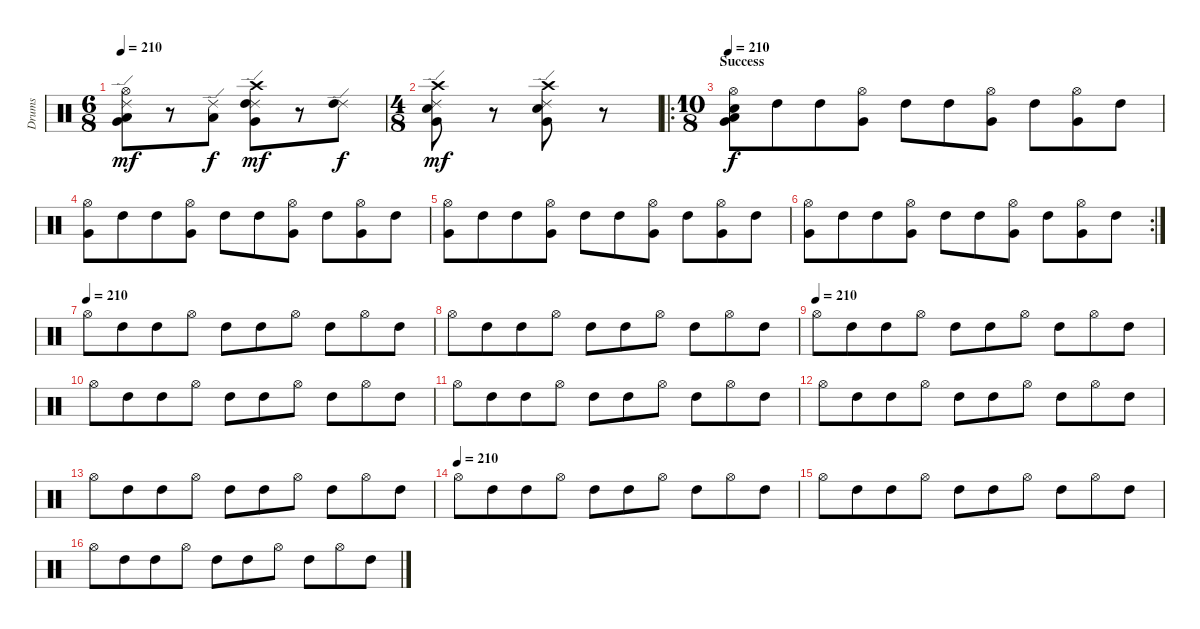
\track ("Drums" "Drums") {instrument percussion}
\staff {score}
\articulation defaults
\ts (6 8)
\tempo 210
\clef neutral
\ks c
("Ride (edge) 2" "Hi-Hat (open)" "Low Tom (hit)" "Very Low Tom (hit)").8{dy mf} r.8 ("Ride (edge) 2" "Low Tom (hit)").8{dy f} ("Ride (edge) 2" "Crash high (hit)" "High Tom (hit)" "Very Low Tom (hit)").8{dy mf} r.8 ("Ride (edge) 2" "High Tom (hit)").8{dy f} |
\ts (4 8)
("Ride (edge) 2" "Crash high (hit)" "Electric Snare (hit)" "Very Low Tom (hit)").8{dy mf} r.8 ("Ride (edge) 2" "Crash high (hit)" "Electric Snare (hit)" "Very Low Tom (hit)").8 r.8 |
\ro
\ts (10 8)
\section ("" "Success")
\tempo 210
("Hi-Hat (open)" "Electric Snare (hit)" "Low Floor Tom (hit)" "Very Low Tom (hit)").8{dy f} "High Tom (hit)".8 "High Tom (hit)".8 ("Hi-Hat (open)" "Very Low Tom (hit)").8 "High Tom (hit)".8 "High Tom (hit)".8 ("Hi-Hat (open)" "Very Low Tom (hit)").8 "High Tom (hit)".8 ("Hi-Hat (open)" "Very Low Tom (hit)").8 "High Tom (hit)".8 |
("Hi-Hat (open)" "Very Low Tom (hit)").8 "High Tom (hit)".8 "High Tom (hit)".8 ("Hi-Hat (open)" "Very Low Tom (hit)").8 "High Tom (hit)".8 "High Tom (hit)".8 ("Hi-Hat (open)" "Very Low Tom (hit)").8 "High Tom (hit)".8 ("Hi-Hat (open)" "Very Low Tom (hit)").8 "High Tom (hit)".8 |
("Hi-Hat (open)" "Very Low Tom (hit)").8 "High Tom (hit)".8 "High Tom (hit)".8 ("Hi-Hat (open)" "Very Low Tom (hit)").8 "High Tom (hit)".8 "High Tom (hit)".8 ("Hi-Hat (open)" "Very Low Tom (hit)").8 "High Tom (hit)".8 ("Hi-Hat (open)" "Very Low Tom (hit)").8 "High Tom (hit)".8 |
\rc 2
("Hi-Hat (open)" "Very Low Tom (hit)").8 "High Tom (hit)".8 "High Tom (hit)".8 ("Hi-Hat (open)" "Very Low Tom (hit)").8 "High Tom (hit)".8 "High Tom (hit)".8 ("Hi-Hat (open)" "Very Low Tom (hit)").8 "High Tom (hit)".8 ("Hi-Hat (open)" "Very Low Tom (hit)").8 "High Tom (hit)".8 |
\tempo (210)
"Hi-Hat (open)".8 "High Tom (hit)".8 "High Tom (hit)".8 "Hi-Hat (open)".8 "High Tom (hit)".8 "High Tom (hit)".8 "Hi-Hat (open)".8 "High Tom (hit)".8 "Hi-Hat (open)".8 "High Tom (hit)".8 |
"Hi-Hat (open)".8 "High Tom (hit)".8 "High Tom (hit)".8 "Hi-Hat (open)".8 "High Tom (hit)".8 "High Tom (hit)".8 "Hi-Hat (open)".8 "High Tom (hit)".8 "Hi-Hat (open)".8 "High Tom (hit)".8 |
\tempo (210)
"Hi-Hat (open)".8 "High Tom (hit)".8 "High Tom (hit)".8 "Hi-Hat (open)".8 "High Tom (hit)".8 "High Tom (hit)".8 "Hi-Hat (open)".8 "High Tom (hit)".8 "Hi-Hat (open)".8 "High Tom (hit)".8 |
"Hi-Hat (open)".8 "High Tom (hit)".8 "High Tom (hit)".8 "Hi-Hat (open)".8 "High Tom (hit)".8 "High Tom (hit)".8 "Hi-Hat (open)".8 "High Tom (hit)".8 "Hi-Hat (open)".8 "High Tom (hit)".8 |
"Hi-Hat (open)".8 "High Tom (hit)".8 "High Tom (hit)".8 "Hi-Hat (open)".8 "High Tom (hit)".8 "High Tom (hit)".8 "Hi-Hat (open)".8 "High Tom (hit)".8 "Hi-Hat (open)".8 "High Tom (hit)".8 |
"Hi-Hat (open)".8 "High Tom (hit)".8 "High Tom (hit)".8 "Hi-Hat (open)".8 "High Tom (hit)".8 "High Tom (hit)".8 "Hi-Hat (open)".8 "High Tom (hit)".8 "Hi-Hat (open)".8 "High Tom (hit)".8 |
"Hi-Hat (open)".8 "High Tom (hit)".8 "High Tom (hit)".8 "Hi-Hat (open)".8 "High Tom (hit)".8 "High Tom (hit)".8 "Hi-Hat (open)".8 "High Tom (hit)".8 "Hi-Hat (open)".8 "High Tom (hit)".8 |
\tempo (210)
"Hi-Hat (open)".8 "High Tom (hit)".8 "High Tom (hit)".8 "Hi-Hat (open)".8 "High Tom (hit)".8 "High Tom (hit)".8 "Hi-Hat (open)".8 "High Tom (hit)".8 "Hi-Hat (open)".8 "High Tom (hit)".8 |
"Hi-Hat (open)".8 "High Tom (hit)".8 "High Tom (hit)".8 "Hi-Hat (open)".8 "High Tom (hit)".8 "High Tom (hit)".8 "Hi-Hat (open)".8 "High Tom (hit)".8 "Hi-Hat (open)".8 "High Tom (hit)".8 |
"Hi-Hat (open)".8 "High Tom (hit)".8 "High Tom (hit)".8 "Hi-Hat (open)".8 "High Tom (hit)".8 "High Tom (hit)".8 "Hi-Hat (open)".8 "High Tom (hit)".8 "Hi-Hat (open)".8 "High Tom (hit)".8
